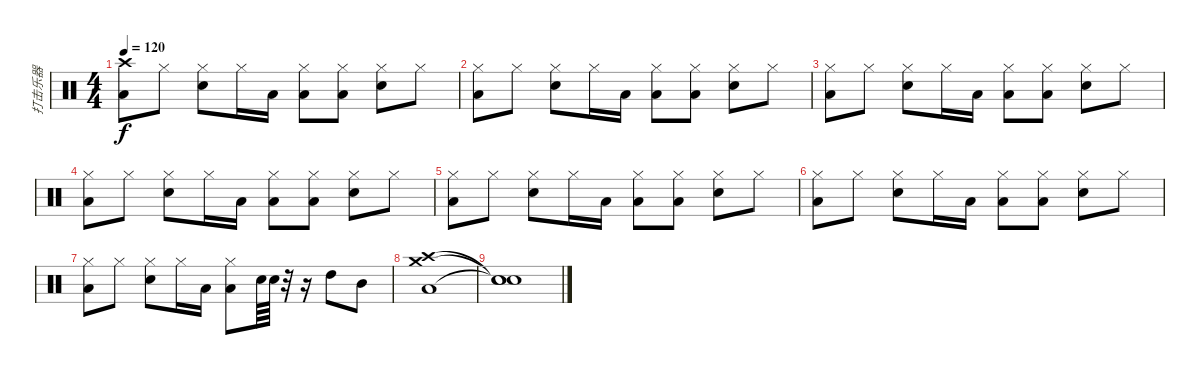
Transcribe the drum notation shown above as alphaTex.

\track ("打击乐器" "打击乐器") {instrument percussion}
\staff {score}
\articulation defaults
\ts (4 4)
\tempo 120
\clef neutral
\ks c
("Crash high (hit)" "Low Floor Tom (hit)").8{dy f} "Hi-Hat (closed)".8 ("Hi-Hat (closed)" "Electric Snare (hit)").8 "Hi-Hat (closed)".16 "Low Floor Tom (hit)".16 ("Hi-Hat (closed)" "Low Floor Tom (hit)").8 ("Hi-Hat (closed)" "Low Floor Tom (hit)").8 ("Hi-Hat (closed)" "Electric Snare (hit)").8 "Hi-Hat (closed)".8 |
("Hi-Hat (closed)" "Low Floor Tom (hit)").8 "Hi-Hat (closed)".8 ("Hi-Hat (closed)" "Electric Snare (hit)").8 "Hi-Hat (closed)".16 "Low Floor Tom (hit)".16 ("Hi-Hat (closed)" "Low Floor Tom (hit)").8 ("Hi-Hat (closed)" "Low Floor Tom (hit)").8 ("Hi-Hat (closed)" "Electric Snare (hit)").8 "Hi-Hat (closed)".8 |
("Hi-Hat (closed)" "Low Floor Tom (hit)").8 "Hi-Hat (closed)".8 ("Hi-Hat (closed)" "Electric Snare (hit)").8 "Hi-Hat (closed)".16 "Low Floor Tom (hit)".16 ("Hi-Hat (closed)" "Low Floor Tom (hit)").8 ("Hi-Hat (closed)" "Low Floor Tom (hit)").8 ("Hi-Hat (closed)" "Electric Snare (hit)").8 "Hi-Hat (closed)".8 |
("Hi-Hat (closed)" "Low Floor Tom (hit)").8 "Hi-Hat (closed)".8 ("Hi-Hat (closed)" "Electric Snare (hit)").8 "Hi-Hat (closed)".16 "Low Floor Tom (hit)".16 ("Hi-Hat (closed)" "Low Floor Tom (hit)").8 ("Hi-Hat (closed)" "Low Floor Tom (hit)").8 ("Hi-Hat (closed)" "Electric Snare (hit)").8 "Hi-Hat (closed)".8 |
("Hi-Hat (closed)" "Low Floor Tom (hit)").8 "Hi-Hat (closed)".8 ("Hi-Hat (closed)" "Electric Snare (hit)").8 "Hi-Hat (closed)".16 "Low Floor Tom (hit)".16 ("Hi-Hat (closed)" "Low Floor Tom (hit)").8 ("Hi-Hat (closed)" "Low Floor Tom (hit)").8 ("Hi-Hat (closed)" "Electric Snare (hit)").8 "Hi-Hat (closed)".8 |
("Hi-Hat (closed)" "Low Floor Tom (hit)").8 "Hi-Hat (closed)".8 ("Hi-Hat (closed)" "Electric Snare (hit)").8 "Hi-Hat (closed)".16 "Low Floor Tom (hit)".16 ("Hi-Hat (closed)" "Low Floor Tom (hit)").8 ("Hi-Hat (closed)" "Low Floor Tom (hit)").8 ("Hi-Hat (closed)" "Electric Snare (hit)").8 "Hi-Hat (closed)".8 |
("Hi-Hat (closed)" "Low Floor Tom (hit)").8 "Hi-Hat (closed)".8 ("Hi-Hat (closed)" "Electric Snare (hit)").8 "Hi-Hat (closed)".16 "Low Floor Tom (hit)".16 ("Hi-Hat (closed)" "Low Floor Tom (hit)").8 "Electric Snare (hit)".64 "Electric Snare (hit)".64 r.32 r.16 "High Tom (hit)".8 "Mid Tom (hit)".8 |
("Crash high (hit)" "Crash medium (hit)" "Low Floor Tom (hit)").1 |
("Snare (hit)"{t} "Snare (hit)"{t} "Snare (hit)"{t}).1
